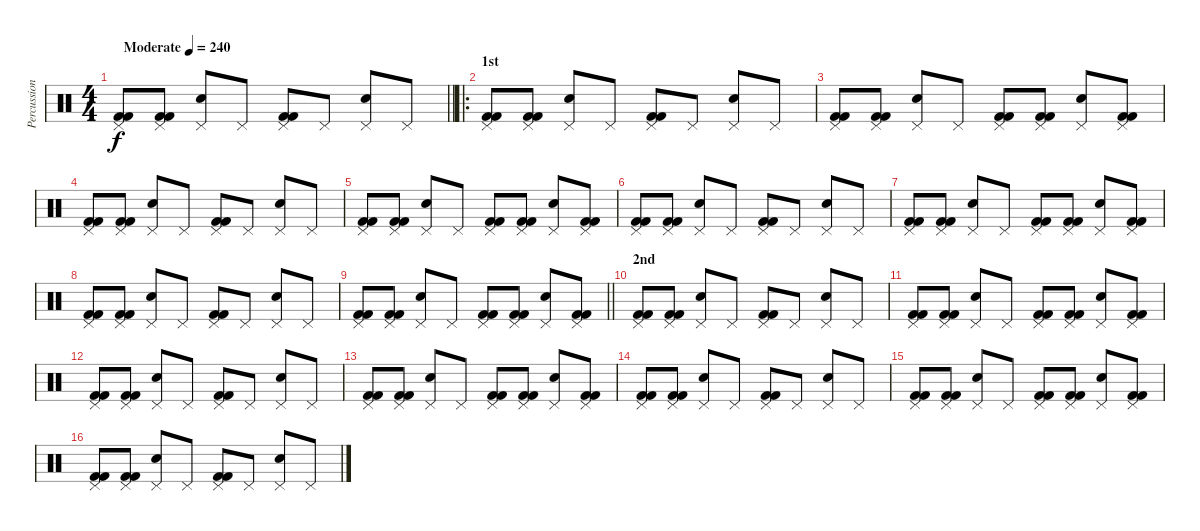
\track ("Percussion" "Percussion") {instrument percussion}
\staff {score}
\articulation defaults
\ts (4 4)
\tempo (240 "Moderate")
\clef neutral
\barLineRight lightlight
\ks c
("Pedal Hi-Hat (hit)" "Kick (hit) 2" "Kick (hit) 2").8{dy f} ("Pedal Hi-Hat (hit)" "Kick (hit) 2" "Kick (hit) 2").8 ("Pedal Hi-Hat (hit)" "Electric Snare (hit)").8 "Pedal Hi-Hat (hit)".8 ("Pedal Hi-Hat (hit)" "Kick (hit) 2" "Kick (hit) 2").8 "Pedal Hi-Hat (hit)".8 ("Pedal Hi-Hat (hit)" "Electric Snare (hit)").8 "Pedal Hi-Hat (hit)".8 |
\ro
\section ("" "1st")
("Pedal Hi-Hat (hit)" "Kick (hit) 2" "Kick (hit) 2").8 ("Pedal Hi-Hat (hit)" "Kick (hit) 2" "Kick (hit) 2").8 ("Pedal Hi-Hat (hit)" "Electric Snare (hit)").8 "Pedal Hi-Hat (hit)".8 ("Pedal Hi-Hat (hit)" "Kick (hit) 2" "Kick (hit) 2").8 "Pedal Hi-Hat (hit)".8 ("Pedal Hi-Hat (hit)" "Electric Snare (hit)").8 "Pedal Hi-Hat (hit)".8 |
("Pedal Hi-Hat (hit)" "Kick (hit) 2" "Kick (hit) 2").8 ("Pedal Hi-Hat (hit)" "Kick (hit) 2" "Kick (hit) 2").8 ("Pedal Hi-Hat (hit)" "Electric Snare (hit)").8 "Pedal Hi-Hat (hit)".8 ("Pedal Hi-Hat (hit)" "Kick (hit) 2" "Kick (hit) 2").8 ("Pedal Hi-Hat (hit)" "Kick (hit) 2" "Kick (hit) 2").8 ("Pedal Hi-Hat (hit)" "Electric Snare (hit)").8 ("Pedal Hi-Hat (hit)" "Kick (hit) 2" "Kick (hit) 2").8 |
("Pedal Hi-Hat (hit)" "Kick (hit) 2" "Kick (hit) 2").8 ("Pedal Hi-Hat (hit)" "Kick (hit) 2" "Kick (hit) 2").8 ("Pedal Hi-Hat (hit)" "Electric Snare (hit)").8 "Pedal Hi-Hat (hit)".8 ("Pedal Hi-Hat (hit)" "Kick (hit) 2" "Kick (hit) 2").8 "Pedal Hi-Hat (hit)".8 ("Pedal Hi-Hat (hit)" "Electric Snare (hit)").8 "Pedal Hi-Hat (hit)".8 |
("Pedal Hi-Hat (hit)" "Kick (hit) 2" "Kick (hit) 2").8 ("Pedal Hi-Hat (hit)" "Kick (hit) 2" "Kick (hit) 2").8 ("Pedal Hi-Hat (hit)" "Electric Snare (hit)").8 "Pedal Hi-Hat (hit)".8 ("Pedal Hi-Hat (hit)" "Kick (hit) 2" "Kick (hit) 2").8 ("Pedal Hi-Hat (hit)" "Kick (hit) 2" "Kick (hit) 2").8 ("Pedal Hi-Hat (hit)" "Electric Snare (hit)").8 ("Pedal Hi-Hat (hit)" "Kick (hit) 2" "Kick (hit) 2").8 |
("Pedal Hi-Hat (hit)" "Kick (hit) 2" "Kick (hit) 2").8 ("Pedal Hi-Hat (hit)" "Kick (hit) 2" "Kick (hit) 2").8 ("Pedal Hi-Hat (hit)" "Electric Snare (hit)").8 "Pedal Hi-Hat (hit)".8 ("Pedal Hi-Hat (hit)" "Kick (hit) 2" "Kick (hit) 2").8 "Pedal Hi-Hat (hit)".8 ("Pedal Hi-Hat (hit)" "Electric Snare (hit)").8 "Pedal Hi-Hat (hit)".8 |
("Pedal Hi-Hat (hit)" "Kick (hit) 2" "Kick (hit) 2").8 ("Pedal Hi-Hat (hit)" "Kick (hit) 2" "Kick (hit) 2").8 ("Pedal Hi-Hat (hit)" "Electric Snare (hit)").8 "Pedal Hi-Hat (hit)".8 ("Pedal Hi-Hat (hit)" "Kick (hit) 2" "Kick (hit) 2").8 ("Pedal Hi-Hat (hit)" "Kick (hit) 2" "Kick (hit) 2").8 ("Pedal Hi-Hat (hit)" "Electric Snare (hit)").8 ("Pedal Hi-Hat (hit)" "Kick (hit) 2" "Kick (hit) 2").8 |
("Pedal Hi-Hat (hit)" "Kick (hit) 2" "Kick (hit) 2").8 ("Pedal Hi-Hat (hit)" "Kick (hit) 2" "Kick (hit) 2").8 ("Pedal Hi-Hat (hit)" "Electric Snare (hit)").8 "Pedal Hi-Hat (hit)".8 ("Pedal Hi-Hat (hit)" "Kick (hit) 2" "Kick (hit) 2").8 "Pedal Hi-Hat (hit)".8 ("Pedal Hi-Hat (hit)" "Electric Snare (hit)").8 "Pedal Hi-Hat (hit)".8 |
\barLineRight lightlight
("Pedal Hi-Hat (hit)" "Kick (hit) 2" "Kick (hit) 2").8 ("Pedal Hi-Hat (hit)" "Kick (hit) 2" "Kick (hit) 2").8 ("Pedal Hi-Hat (hit)" "Electric Snare (hit)").8 "Pedal Hi-Hat (hit)".8 ("Pedal Hi-Hat (hit)" "Kick (hit) 2" "Kick (hit) 2").8 ("Pedal Hi-Hat (hit)" "Kick (hit) 2" "Kick (hit) 2").8 ("Pedal Hi-Hat (hit)" "Electric Snare (hit)").8 ("Pedal Hi-Hat (hit)" "Kick (hit) 2" "Kick (hit) 2").8 |
\section ("" "2nd")
("Pedal Hi-Hat (hit)" "Kick (hit) 2" "Kick (hit) 2").8 ("Pedal Hi-Hat (hit)" "Kick (hit) 2" "Kick (hit) 2").8 ("Pedal Hi-Hat (hit)" "Electric Snare (hit)").8 "Pedal Hi-Hat (hit)".8 ("Pedal Hi-Hat (hit)" "Kick (hit) 2" "Kick (hit) 2").8 "Pedal Hi-Hat (hit)".8 ("Pedal Hi-Hat (hit)" "Electric Snare (hit)").8 "Pedal Hi-Hat (hit)".8 |
("Pedal Hi-Hat (hit)" "Kick (hit) 2" "Kick (hit) 2").8 ("Pedal Hi-Hat (hit)" "Kick (hit) 2" "Kick (hit) 2").8 ("Pedal Hi-Hat (hit)" "Electric Snare (hit)").8 "Pedal Hi-Hat (hit)".8 ("Pedal Hi-Hat (hit)" "Kick (hit) 2" "Kick (hit) 2").8 ("Pedal Hi-Hat (hit)" "Kick (hit) 2" "Kick (hit) 2").8 ("Pedal Hi-Hat (hit)" "Electric Snare (hit)").8 ("Pedal Hi-Hat (hit)" "Kick (hit) 2" "Kick (hit) 2").8 |
("Pedal Hi-Hat (hit)" "Kick (hit) 2" "Kick (hit) 2").8 ("Pedal Hi-Hat (hit)" "Kick (hit) 2" "Kick (hit) 2").8 ("Pedal Hi-Hat (hit)" "Electric Snare (hit)").8 "Pedal Hi-Hat (hit)".8 ("Pedal Hi-Hat (hit)" "Kick (hit) 2" "Kick (hit) 2").8 "Pedal Hi-Hat (hit)".8 ("Pedal Hi-Hat (hit)" "Electric Snare (hit)").8 "Pedal Hi-Hat (hit)".8 |
("Pedal Hi-Hat (hit)" "Kick (hit) 2" "Kick (hit) 2").8 ("Pedal Hi-Hat (hit)" "Kick (hit) 2" "Kick (hit) 2").8 ("Pedal Hi-Hat (hit)" "Electric Snare (hit)").8 "Pedal Hi-Hat (hit)".8 ("Pedal Hi-Hat (hit)" "Kick (hit) 2" "Kick (hit) 2").8 ("Pedal Hi-Hat (hit)" "Kick (hit) 2" "Kick (hit) 2").8 ("Pedal Hi-Hat (hit)" "Electric Snare (hit)").8 ("Pedal Hi-Hat (hit)" "Kick (hit) 2" "Kick (hit) 2").8 |
("Pedal Hi-Hat (hit)" "Kick (hit) 2" "Kick (hit) 2").8 ("Pedal Hi-Hat (hit)" "Kick (hit) 2" "Kick (hit) 2").8 ("Pedal Hi-Hat (hit)" "Electric Snare (hit)").8 "Pedal Hi-Hat (hit)".8 ("Pedal Hi-Hat (hit)" "Kick (hit) 2" "Kick (hit) 2").8 "Pedal Hi-Hat (hit)".8 ("Pedal Hi-Hat (hit)" "Electric Snare (hit)").8 "Pedal Hi-Hat (hit)".8 |
("Pedal Hi-Hat (hit)" "Kick (hit) 2" "Kick (hit) 2").8 ("Pedal Hi-Hat (hit)" "Kick (hit) 2" "Kick (hit) 2").8 ("Pedal Hi-Hat (hit)" "Electric Snare (hit)").8 "Pedal Hi-Hat (hit)".8 ("Pedal Hi-Hat (hit)" "Kick (hit) 2" "Kick (hit) 2").8 ("Pedal Hi-Hat (hit)" "Kick (hit) 2" "Kick (hit) 2").8 ("Pedal Hi-Hat (hit)" "Electric Snare (hit)").8 ("Pedal Hi-Hat (hit)" "Kick (hit) 2" "Kick (hit) 2").8 |
("Pedal Hi-Hat (hit)" "Kick (hit) 2" "Kick (hit) 2").8 ("Pedal Hi-Hat (hit)" "Kick (hit) 2" "Kick (hit) 2").8 ("Pedal Hi-Hat (hit)" "Electric Snare (hit)").8 "Pedal Hi-Hat (hit)".8 ("Pedal Hi-Hat (hit)" "Kick (hit) 2" "Kick (hit) 2").8 "Pedal Hi-Hat (hit)".8 ("Pedal Hi-Hat (hit)" "Electric Snare (hit)").8 "Pedal Hi-Hat (hit)".8
